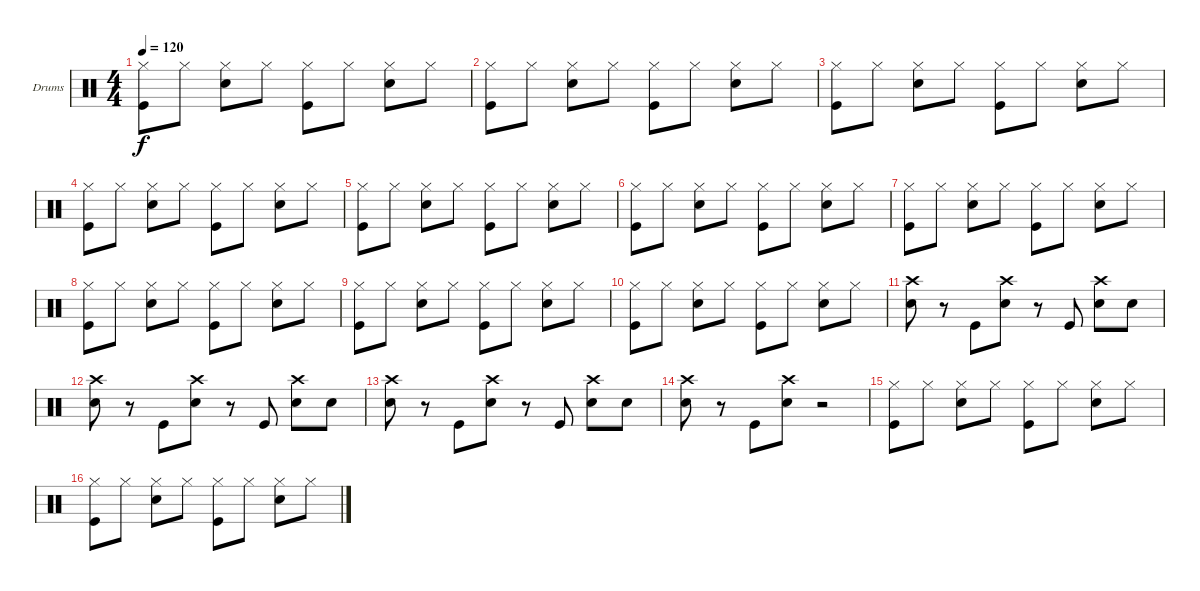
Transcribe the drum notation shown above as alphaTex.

\bracketExtendMode groupsimilarinstruments
\firstSystemTrackNameOrientation horizontal
\otherSystemsTrackNameOrientation horizontal
\track ("Drumkit" "Drums") {instrument percussion}
\staff {score}
\articulation defaults
\ts (4 4)
\tempo 120
\clef neutral
\ks c
("Hi-Hat (closed)" "Kick (hit)").8{dy f} "Hi-Hat (closed)".8 ("Hi-Hat (closed)" "Snare (hit) 2").8 "Hi-Hat (closed)".8 ("Hi-Hat (closed)" "Kick (hit)").8 "Hi-Hat (closed)".8 ("Hi-Hat (closed)" "Snare (hit) 2").8 "Hi-Hat (closed)".8 |
("Hi-Hat (closed)" "Kick (hit)").8 "Hi-Hat (closed)".8 ("Hi-Hat (closed)" "Snare (hit) 2").8 "Hi-Hat (closed)".8 ("Hi-Hat (closed)" "Kick (hit)").8 "Hi-Hat (closed)".8 ("Hi-Hat (closed)" "Snare (hit) 2").8 "Hi-Hat (closed)".8 |
("Hi-Hat (closed)" "Kick (hit)").8 "Hi-Hat (closed)".8 ("Hi-Hat (closed)" "Snare (hit) 2").8 "Hi-Hat (closed)".8 ("Hi-Hat (closed)" "Kick (hit)").8 "Hi-Hat (closed)".8 ("Hi-Hat (closed)" "Snare (hit) 2").8 "Hi-Hat (closed)".8 |
("Hi-Hat (closed)" "Kick (hit)").8 "Hi-Hat (closed)".8 ("Hi-Hat (closed)" "Snare (hit) 2").8 "Hi-Hat (closed)".8 ("Hi-Hat (closed)" "Kick (hit)").8 "Hi-Hat (closed)".8 ("Hi-Hat (closed)" "Snare (hit) 2").8 "Hi-Hat (closed)".8 |
("Hi-Hat (closed)" "Kick (hit)").8 "Hi-Hat (closed)".8 ("Hi-Hat (closed)" "Snare (hit) 2").8 "Hi-Hat (closed)".8 ("Hi-Hat (closed)" "Kick (hit)").8 "Hi-Hat (closed)".8 ("Hi-Hat (closed)" "Snare (hit) 2").8 "Hi-Hat (closed)".8 |
("Hi-Hat (closed)" "Kick (hit)").8 "Hi-Hat (closed)".8 ("Hi-Hat (closed)" "Snare (hit) 2").8 "Hi-Hat (closed)".8 ("Hi-Hat (closed)" "Kick (hit)").8 "Hi-Hat (closed)".8 ("Hi-Hat (closed)" "Snare (hit) 2").8 "Hi-Hat (closed)".8 |
("Hi-Hat (closed)" "Kick (hit)").8 "Hi-Hat (closed)".8 ("Hi-Hat (closed)" "Snare (hit) 2").8 "Hi-Hat (closed)".8 ("Hi-Hat (closed)" "Kick (hit)").8 "Hi-Hat (closed)".8 ("Hi-Hat (closed)" "Snare (hit) 2").8 "Hi-Hat (closed)".8 |
("Hi-Hat (closed)" "Kick (hit)").8 "Hi-Hat (closed)".8 ("Hi-Hat (closed)" "Snare (hit) 2").8 "Hi-Hat (closed)".8 ("Hi-Hat (closed)" "Kick (hit)").8 "Hi-Hat (closed)".8 ("Hi-Hat (closed)" "Snare (hit) 2").8 "Hi-Hat (closed)".8 |
("Hi-Hat (closed)" "Kick (hit)").8 "Hi-Hat (closed)".8 ("Hi-Hat (closed)" "Snare (hit) 2").8 "Hi-Hat (closed)".8 ("Hi-Hat (closed)" "Kick (hit)").8 "Hi-Hat (closed)".8 ("Hi-Hat (closed)" "Snare (hit) 2").8 "Hi-Hat (closed)".8 |
("Hi-Hat (closed)" "Kick (hit)").8 "Hi-Hat (closed)".8 ("Hi-Hat (closed)" "Snare (hit) 2").8 "Hi-Hat (closed)".8 ("Hi-Hat (closed)" "Kick (hit)").8 "Hi-Hat (closed)".8 ("Hi-Hat (closed)" "Snare (hit) 2").8 "Hi-Hat (closed)".8 |
("Crash high (hit)" "Snare (hit) 2").8 r.8 "Kick (hit)".8 ("Crash high (hit)" "Snare (hit) 2").8 r.8 "Kick (hit)".8 ("Crash high (hit)" "Snare (hit) 2").8 "Snare (hit) 2".8 |
("Crash high (hit)" "Snare (hit) 2").8 r.8 "Kick (hit)".8 ("Crash high (hit)" "Snare (hit) 2").8 r.8 "Kick (hit)".8 ("Crash high (hit)" "Snare (hit) 2").8 "Snare (hit) 2".8 |
("Crash high (hit)" "Snare (hit) 2").8 r.8 "Kick (hit)".8 ("Crash high (hit)" "Snare (hit) 2").8 r.8 "Kick (hit)".8 ("Crash high (hit)" "Snare (hit) 2").8 "Snare (hit) 2".8 |
("Crash high (hit)" "Snare (hit) 2").8 r.8 "Kick (hit)".8 ("Crash high (hit)" "Snare (hit) 2").8 r.2 |
("Hi-Hat (closed)" "Kick (hit)").8 "Hi-Hat (closed)".8 ("Hi-Hat (closed)" "Snare (hit) 2").8 "Hi-Hat (closed)".8 ("Hi-Hat (closed)" "Kick (hit)").8 "Hi-Hat (closed)".8 ("Hi-Hat (closed)" "Snare (hit) 2").8 "Hi-Hat (closed)".8 |
("Hi-Hat (closed)" "Kick (hit)").8 "Hi-Hat (closed)".8 ("Hi-Hat (closed)" "Snare (hit) 2").8 "Hi-Hat (closed)".8 ("Hi-Hat (closed)" "Kick (hit)").8 "Hi-Hat (closed)".8 ("Hi-Hat (closed)" "Snare (hit) 2").8 "Hi-Hat (closed)".8
